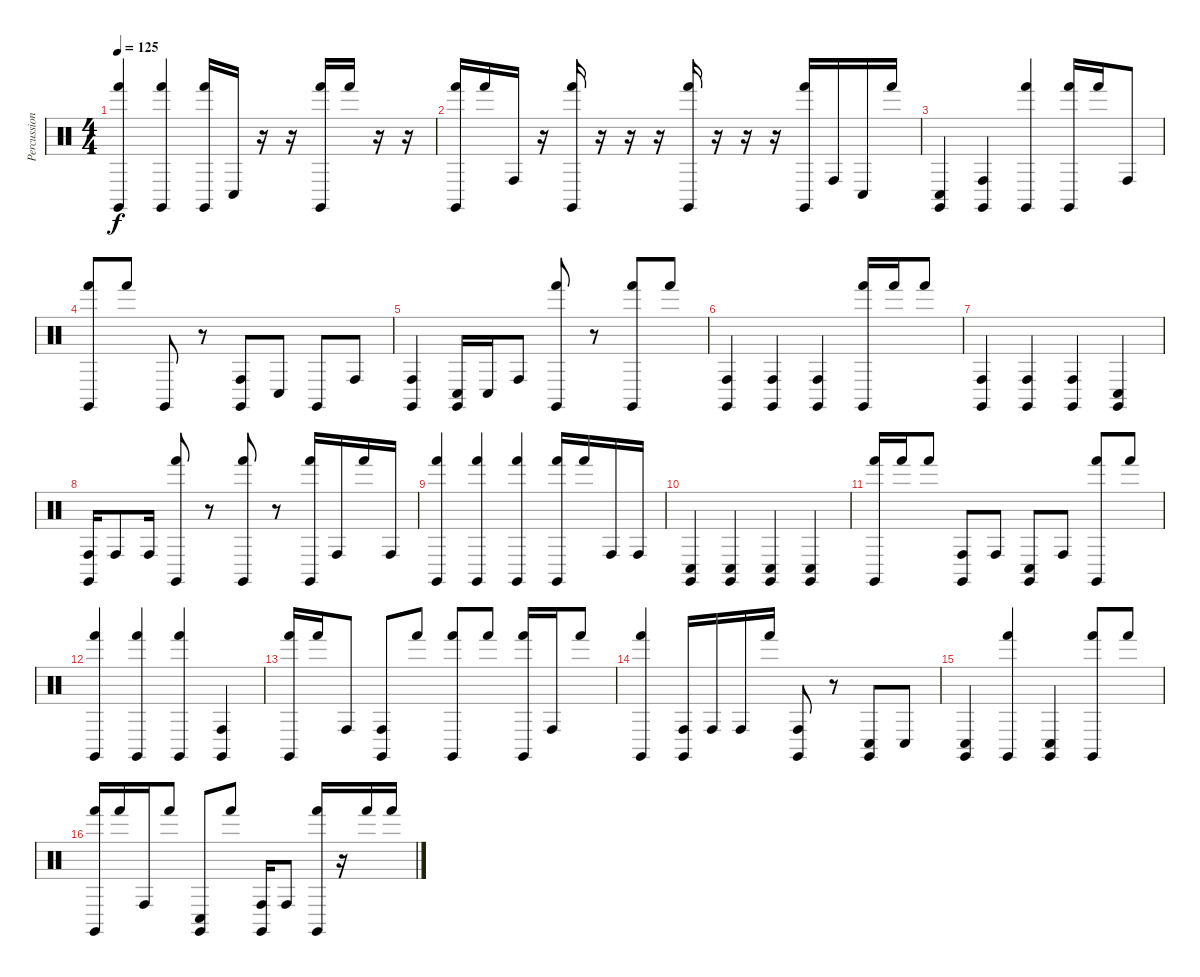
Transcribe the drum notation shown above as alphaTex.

\track ("Percussion" "Percussion") {instrument percussion}
\staff {score}
\articulation defaults
\ts (4 4)
\tempo 125
\clef neutral
\ks c
("Claves (hit)" "Hand (hit)").4{dy f} ("Claves (hit)" "Hand (hit)").4 ("Claves (hit)" "Hand (hit)").16 "Conga low (hit)".16 r.16 r.16 ("Claves (hit)" "Hand (hit)").16 "Hand (hit)".16 r.16 r.16 |
("Claves (hit)" "Hand (hit)").16 "Hand (hit)".16 "Conga high (hit)".16 r.16 ("Claves (hit)" "Hand (hit)").16 r.16 r.16 r.16 ("Claves (hit)" "Hand (hit)").16 r.16 r.16 r.16 ("Claves (hit)" "Hand (hit)").16 "Conga high (hit)".16 "Conga low (hit)".16 "Hand (hit)".16 |
("Claves (hit)" "Conga low (hit)").4 ("Claves (hit)" "Conga high (hit)").4 ("Claves (hit)" "Hand (hit)").4 ("Claves (hit)" "Hand (hit)").16 "Hand (hit)".16 "Conga high (hit)".8 |
("Claves (hit)" "Hand (hit)").8 "Hand (hit)".8 "Claves (hit)".8 r.8 ("Claves (hit)" "Conga high (hit)").8 "Conga low (hit)".8 "Claves (hit)".8 "Conga high (hit)".8 |
("Claves (hit)" "Conga high (hit)").4 ("Claves (hit)" "Conga low (hit)").16 "Conga low (hit)".16 "Conga high (hit)".8 ("Claves (hit)" "Hand (hit)").8 r.8 ("Claves (hit)" "Hand (hit)").8 "Hand (hit)".8 |
("Claves (hit)" "Conga high (hit)").4 ("Claves (hit)" "Conga high (hit)").4 ("Claves (hit)" "Conga high (hit)").4 ("Claves (hit)" "Hand (hit)").16 "Hand (hit)".16 "Hand (hit)".8 |
("Claves (hit)" "Conga high (hit)").4 ("Claves (hit)" "Conga high (hit)").4 ("Claves (hit)" "Conga high (hit)").4 ("Claves (hit)" "Conga low (hit)").4 |
("Claves (hit)" "Conga high (hit)").16 "Conga high (hit)".8 "Conga high (hit)".16 ("Claves (hit)" "Hand (hit)").8 r.8 ("Claves (hit)" "Hand (hit)").8 r.8 ("Claves (hit)" "Hand (hit)").16 "Conga high (hit)".16 "Hand (hit)".16 "Conga high (hit)".16 |
("Claves (hit)" "Hand (hit)").4 ("Claves (hit)" "Hand (hit)").4 ("Claves (hit)" "Hand (hit)").4 ("Claves (hit)" "Hand (hit)").16 "Hand (hit)".16 "Conga high (hit)".16 "Conga high (hit)".16 |
("Claves (hit)" "Conga low (hit)").4 ("Claves (hit)" "Conga low (hit)").4 ("Claves (hit)" "Conga low (hit)").4 ("Claves (hit)" "Conga low (hit)").4 |
("Claves (hit)" "Hand (hit)").16 "Hand (hit)".16 "Hand (hit)".8 ("Claves (hit)" "Conga high (hit)").8 "Conga high (hit)".8 ("Claves (hit)" "Conga low (hit)").8 "Conga high (hit)".8 ("Claves (hit)" "Hand (hit)").8 "Hand (hit)".8 |
("Claves (hit)" "Hand (hit)").4 ("Claves (hit)" "Hand (hit)").4 ("Claves (hit)" "Hand (hit)").4 ("Claves (hit)" "Conga high (hit)").4 |
("Claves (hit)" "Hand (hit)").16 "Hand (hit)".16 "Conga high (hit)".8 ("Claves (hit)" "Conga high (hit)").8 "Hand (hit)".8 ("Claves (hit)" "Hand (hit)").8 "Hand (hit)".8 ("Claves (hit)" "Hand (hit)").16 "Conga high (hit)".16 "Hand (hit)".8 |
("Claves (hit)" "Hand (hit)").4 ("Claves (hit)" "Conga high (hit)").16 "Conga high (hit)".16 "Conga high (hit)".16 "Hand (hit)".16 ("Claves (hit)" "Conga high (hit)").8 r.8 ("Claves (hit)" "Conga low (hit)").8 "Conga low (hit)".8 |
("Claves (hit)" "Conga low (hit)").4 ("Claves (hit)" "Hand (hit)").4 ("Claves (hit)" "Conga low (hit)").4 ("Claves (hit)" "Hand (hit)").8 "Hand (hit)".8 |
("Claves (hit)" "Hand (hit)").16 "Hand (hit)".16 "Conga high (hit)".16 "Hand (hit)".8 ("Claves (hit)" "Conga low (hit)").8 "Hand (hit)".8 ("Claves (hit)" "Conga high (hit)").16 "Conga high (hit)".8 ("Claves (hit)" "Hand (hit)").16 r.16 "Hand (hit)".16 "Hand (hit)".16
